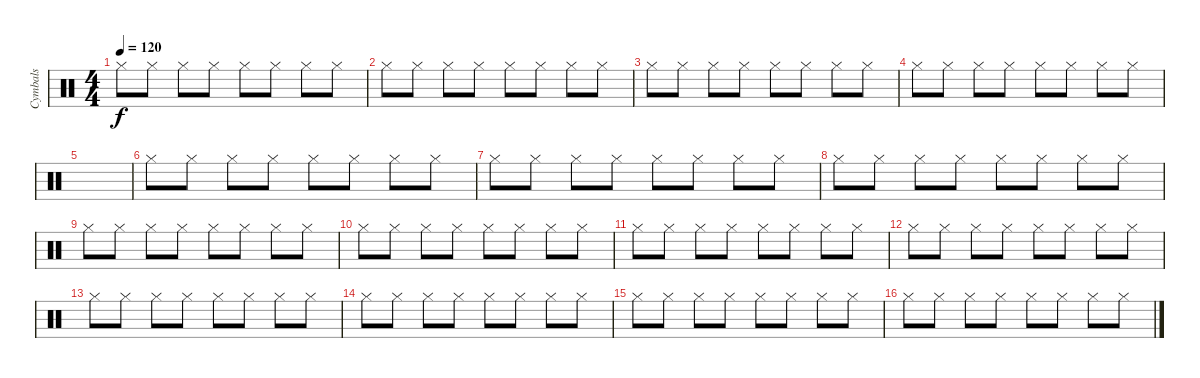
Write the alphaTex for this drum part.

\track ("Cymbals" "Cymbals") {instrument percussion}
\staff {score}
\articulation defaults
\ts (4 4)
\tempo 120
\clef neutral
\ks c "Hi-Hat (closed)".8{dy f} "Hi-Hat (closed)".8 "Hi-Hat (closed)".8 "Hi-Hat (closed)".8 "Hi-Hat (closed)".8 "Hi-Hat (closed)".8 "Hi-Hat (closed)".8 "Hi-Hat (closed)".8
|
"Hi-Hat (closed)".8 "Hi-Hat (closed)".8 "Hi-Hat (closed)".8 "Hi-Hat (closed)".8 "Hi-Hat (closed)".8 "Hi-Hat (closed)".8 "Hi-Hat (closed)".8 "Hi-Hat (closed)".8 |
"Hi-Hat (closed)".8 "Hi-Hat (closed)".8 "Hi-Hat (closed)".8 "Hi-Hat (closed)".8 "Hi-Hat (closed)".8 "Hi-Hat (closed)".8 "Hi-Hat (closed)".8 "Hi-Hat (closed)".8 |
"Hi-Hat (closed)".8 "Hi-Hat (closed)".8 "Hi-Hat (closed)".8 "Hi-Hat (closed)".8 "Hi-Hat (closed)".8 "Hi-Hat (closed)".8 "Hi-Hat (closed)".8 "Hi-Hat (closed)".8 |
|
"Hi-Hat (closed)".8 "Hi-Hat (closed)".8 "Hi-Hat (closed)".8 "Hi-Hat (closed)".8 "Hi-Hat (closed)".8 "Hi-Hat (closed)".8 "Hi-Hat (closed)".8 "Hi-Hat (closed)".8 |
"Hi-Hat (closed)".8 "Hi-Hat (closed)".8 "Hi-Hat (closed)".8 "Hi-Hat (closed)".8 "Hi-Hat (closed)".8 "Hi-Hat (closed)".8 "Hi-Hat (closed)".8 "Hi-Hat (closed)".8 |
"Hi-Hat (closed)".8 "Hi-Hat (closed)".8 "Hi-Hat (closed)".8 "Hi-Hat (closed)".8 "Hi-Hat (closed)".8 "Hi-Hat (closed)".8 "Hi-Hat (closed)".8 "Hi-Hat (closed)".8 |
"Hi-Hat (closed)".8 "Hi-Hat (closed)".8 "Hi-Hat (closed)".8 "Hi-Hat (closed)".8 "Hi-Hat (closed)".8 "Hi-Hat (closed)".8 "Hi-Hat (closed)".8 "Hi-Hat (closed)".8 |
"Hi-Hat (closed)".8 "Hi-Hat (closed)".8 "Hi-Hat (closed)".8 "Hi-Hat (closed)".8 "Hi-Hat (closed)".8 "Hi-Hat (closed)".8 "Hi-Hat (closed)".8 "Hi-Hat (closed)".8 |
"Hi-Hat (closed)".8 "Hi-Hat (closed)".8 "Hi-Hat (closed)".8 "Hi-Hat (closed)".8 "Hi-Hat (closed)".8 "Hi-Hat (closed)".8 "Hi-Hat (closed)".8 "Hi-Hat (closed)".8 |
"Hi-Hat (closed)".8 "Hi-Hat (closed)".8 "Hi-Hat (closed)".8 "Hi-Hat (closed)".8 "Hi-Hat (closed)".8 "Hi-Hat (closed)".8 "Hi-Hat (closed)".8 "Hi-Hat (closed)".8 |
"Hi-Hat (closed)".8 "Hi-Hat (closed)".8 "Hi-Hat (closed)".8 "Hi-Hat (closed)".8 "Hi-Hat (closed)".8 "Hi-Hat (closed)".8 "Hi-Hat (closed)".8 "Hi-Hat (closed)".8 |
"Hi-Hat (closed)".8 "Hi-Hat (closed)".8 "Hi-Hat (closed)".8 "Hi-Hat (closed)".8 "Hi-Hat (closed)".8 "Hi-Hat (closed)".8 "Hi-Hat (closed)".8 "Hi-Hat (closed)".8 |
"Hi-Hat (closed)".8 "Hi-Hat (closed)".8 "Hi-Hat (closed)".8 "Hi-Hat (closed)".8 "Hi-Hat (closed)".8 "Hi-Hat (closed)".8 "Hi-Hat (closed)".8 "Hi-Hat (closed)".8 |
"Hi-Hat (closed)".8 "Hi-Hat (closed)".8 "Hi-Hat (closed)".8 "Hi-Hat (closed)".8 "Hi-Hat (closed)".8 "Hi-Hat (closed)".8 "Hi-Hat (closed)".8 "Hi-Hat (closed)".8
